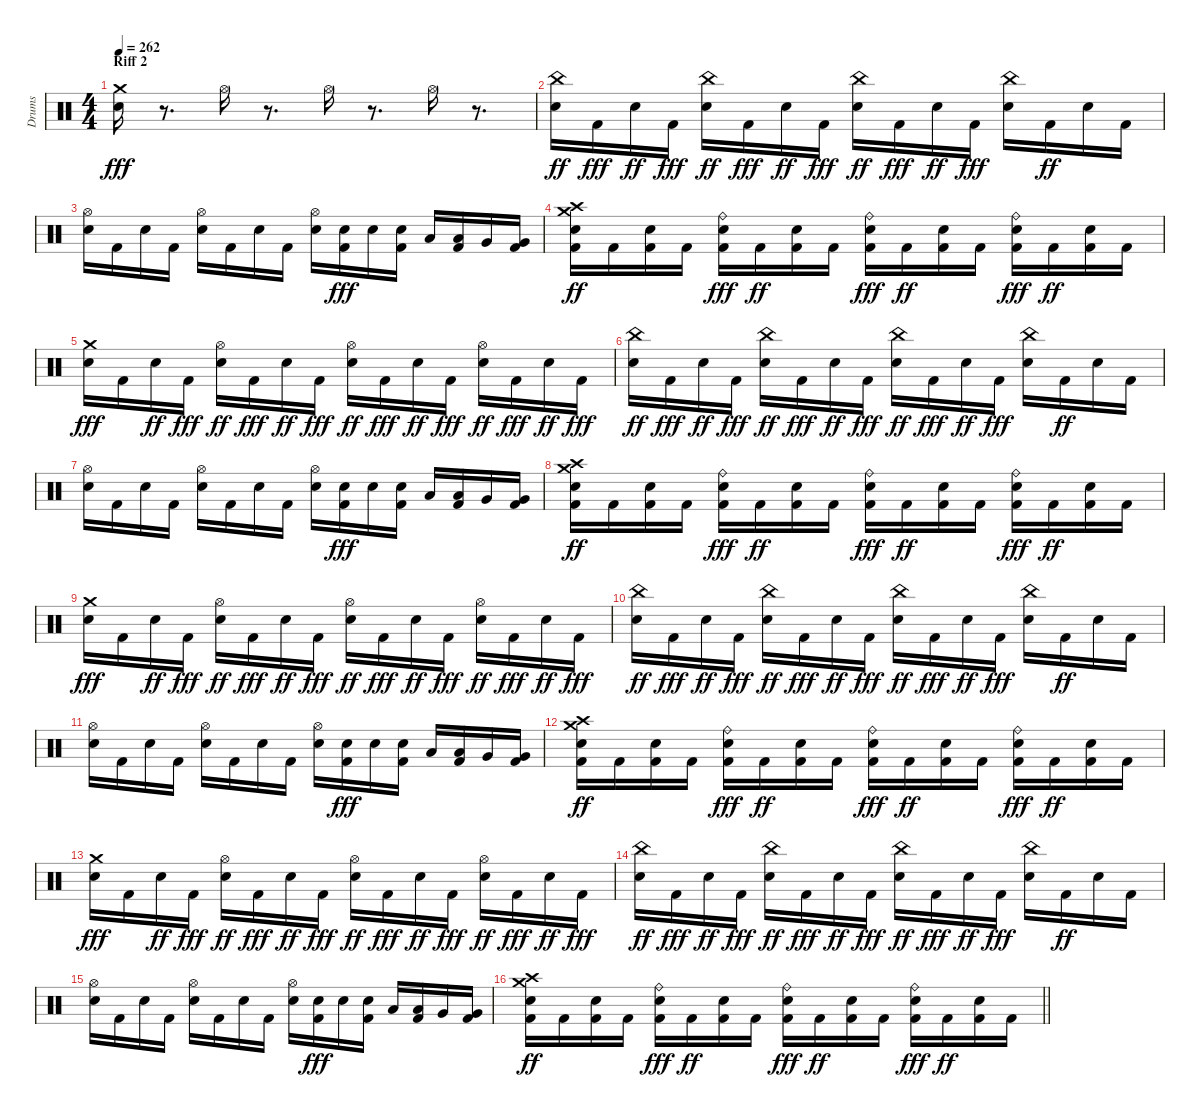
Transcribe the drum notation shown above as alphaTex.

\track ("Drums" "Drums") {instrument percussion}
\staff {score}
\articulation defaults
\ts (4 4)
\section ("" "Riff 2")
\tempo 262
\clef neutral
\ks c
("Crash medium (hit)" "Snare (hit) 2").16{dy fff} r.8{d} "Hi-Hat (open)".16 r.8{d} "Hi-Hat (open)".16 r.8{d} "Hi-Hat (open)".16 r.8{d} |
("China (hit)" "Snare (hit) 2").16{dy ff} "Kick (hit) 2".16{dy fff} "Snare (hit) 2".16{dy ff} "Kick (hit) 2".16{dy fff} ("China (hit)" "Snare (hit) 2").16{dy ff} "Kick (hit) 2".16{dy fff} "Snare (hit) 2".16{dy ff} "Kick (hit) 2".16{dy fff} ("China (hit)" "Snare (hit) 2").16{dy ff} "Kick (hit) 2".16{dy fff} "Snare (hit) 2".16{dy ff} "Kick (hit) 2".16{dy fff} ("China (hit)" "Snare (hit) 2").16 "Kick (hit) 2".16{dy ff} "Snare (hit) 2".16 "Kick (hit) 2".16 |
("Hi-Hat (open)" "Snare (hit) 2").16 "Kick (hit) 2".16 "Snare (hit) 2".16 "Kick (hit) 2".16 ("Hi-Hat (open)" "Snare (hit) 2").16 "Kick (hit) 2".16 "Snare (hit) 2".16 "Kick (hit) 2".16 ("Hi-Hat (open)" "Snare (hit) 2").16 ("Kick (hit) 2" "Snare (hit) 2").16{dy fff} "Snare (hit) 2".16 ("Kick (hit) 2" "Snare (hit) 2").16 "Low Tom (hit)".16 ("Kick (hit) 2" "Low Tom (hit)").16 "Very Low Tom (hit)".16 ("Kick (hit) 2" "Very Low Tom (hit)").16 |
("Crash high (hit)" "Crash medium (hit)" "Kick (hit) 2" "Snare (hit) 2").16{dy ff} "Kick (hit) 2".16 ("Kick (hit) 2" "Snare (hit) 2").16 "Kick (hit) 2".16 ("Kick (hit) 2" "Snare (hit) 2" "Ride (bell)").16{dy fff} "Kick (hit) 2".16{dy ff} ("Kick (hit) 2" "Snare (hit) 2").16 "Kick (hit) 2".16 ("Kick (hit) 2" "Snare (hit) 2" "Ride (bell)").16{dy fff} "Kick (hit) 2".16{dy ff} ("Kick (hit) 2" "Snare (hit) 2").16 "Kick (hit) 2".16 ("Kick (hit) 2" "Snare (hit) 2" "Ride (bell)").16{dy fff} "Kick (hit) 2".16{dy ff} ("Kick (hit) 2" "Snare (hit) 2").16 "Kick (hit) 2".16 |
("Crash medium (hit)" "Snare (hit) 2").16{dy fff} "Kick (hit) 2".16 "Snare (hit) 2".16{dy ff} "Kick (hit) 2".16{dy fff} ("Hi-Hat (open)" "Snare (hit) 2").16{dy ff} "Kick (hit) 2".16{dy fff} "Snare (hit) 2".16{dy ff} "Kick (hit) 2".16{dy fff} ("Hi-Hat (open)" "Snare (hit) 2").16{dy ff} "Kick (hit) 2".16{dy fff} "Snare (hit) 2".16{dy ff} "Kick (hit) 2".16{dy fff} ("Hi-Hat (open)" "Snare (hit) 2").16{dy ff} "Kick (hit) 2".16{dy fff} "Snare (hit) 2".16{dy ff} "Kick (hit) 2".16{dy fff} |
("China (hit)" "Snare (hit) 2").16{dy ff} "Kick (hit) 2".16{dy fff} "Snare (hit) 2".16{dy ff} "Kick (hit) 2".16{dy fff} ("China (hit)" "Snare (hit) 2").16{dy ff} "Kick (hit) 2".16{dy fff} "Snare (hit) 2".16{dy ff} "Kick (hit) 2".16{dy fff} ("China (hit)" "Snare (hit) 2").16{dy ff} "Kick (hit) 2".16{dy fff} "Snare (hit) 2".16{dy ff} "Kick (hit) 2".16{dy fff} ("China (hit)" "Snare (hit) 2").16 "Kick (hit) 2".16{dy ff} "Snare (hit) 2".16 "Kick (hit) 2".16 |
("Hi-Hat (open)" "Snare (hit) 2").16 "Kick (hit) 2".16 "Snare (hit) 2".16 "Kick (hit) 2".16 ("Hi-Hat (open)" "Snare (hit) 2").16 "Kick (hit) 2".16 "Snare (hit) 2".16 "Kick (hit) 2".16 ("Hi-Hat (open)" "Snare (hit) 2").16 ("Kick (hit) 2" "Snare (hit) 2").16{dy fff} "Snare (hit) 2".16 ("Kick (hit) 2" "Snare (hit) 2").16 "Low Tom (hit)".16 ("Kick (hit) 2" "Low Tom (hit)").16 "Very Low Tom (hit)".16 ("Kick (hit) 2" "Very Low Tom (hit)").16 |
("Crash high (hit)" "Crash medium (hit)" "Kick (hit) 2" "Snare (hit) 2").16{dy ff} "Kick (hit) 2".16 ("Kick (hit) 2" "Snare (hit) 2").16 "Kick (hit) 2".16 ("Kick (hit) 2" "Snare (hit) 2" "Ride (bell)").16{dy fff} "Kick (hit) 2".16{dy ff} ("Kick (hit) 2" "Snare (hit) 2").16 "Kick (hit) 2".16 ("Kick (hit) 2" "Snare (hit) 2" "Ride (bell)").16{dy fff} "Kick (hit) 2".16{dy ff} ("Kick (hit) 2" "Snare (hit) 2").16 "Kick (hit) 2".16 ("Kick (hit) 2" "Snare (hit) 2" "Ride (bell)").16{dy fff} "Kick (hit) 2".16{dy ff} ("Kick (hit) 2" "Snare (hit) 2").16 "Kick (hit) 2".16 |
("Crash medium (hit)" "Snare (hit) 2").16{dy fff} "Kick (hit) 2".16 "Snare (hit) 2".16{dy ff} "Kick (hit) 2".16{dy fff} ("Hi-Hat (open)" "Snare (hit) 2").16{dy ff} "Kick (hit) 2".16{dy fff} "Snare (hit) 2".16{dy ff} "Kick (hit) 2".16{dy fff} ("Hi-Hat (open)" "Snare (hit) 2").16{dy ff} "Kick (hit) 2".16{dy fff} "Snare (hit) 2".16{dy ff} "Kick (hit) 2".16{dy fff} ("Hi-Hat (open)" "Snare (hit) 2").16{dy ff} "Kick (hit) 2".16{dy fff} "Snare (hit) 2".16{dy ff} "Kick (hit) 2".16{dy fff} |
("China (hit)" "Snare (hit) 2").16{dy ff} "Kick (hit) 2".16{dy fff} "Snare (hit) 2".16{dy ff} "Kick (hit) 2".16{dy fff} ("China (hit)" "Snare (hit) 2").16{dy ff} "Kick (hit) 2".16{dy fff} "Snare (hit) 2".16{dy ff} "Kick (hit) 2".16{dy fff} ("China (hit)" "Snare (hit) 2").16{dy ff} "Kick (hit) 2".16{dy fff} "Snare (hit) 2".16{dy ff} "Kick (hit) 2".16{dy fff} ("China (hit)" "Snare (hit) 2").16 "Kick (hit) 2".16{dy ff} "Snare (hit) 2".16 "Kick (hit) 2".16 |
("Hi-Hat (open)" "Snare (hit) 2").16 "Kick (hit) 2".16 "Snare (hit) 2".16 "Kick (hit) 2".16 ("Hi-Hat (open)" "Snare (hit) 2").16 "Kick (hit) 2".16 "Snare (hit) 2".16 "Kick (hit) 2".16 ("Hi-Hat (open)" "Snare (hit) 2").16 ("Kick (hit) 2" "Snare (hit) 2").16{dy fff} "Snare (hit) 2".16 ("Kick (hit) 2" "Snare (hit) 2").16 "Low Tom (hit)".16 ("Kick (hit) 2" "Low Tom (hit)").16 "Very Low Tom (hit)".16 ("Kick (hit) 2" "Very Low Tom (hit)").16 |
("Crash high (hit)" "Crash medium (hit)" "Kick (hit) 2" "Snare (hit) 2").16{dy ff} "Kick (hit) 2".16 ("Kick (hit) 2" "Snare (hit) 2").16 "Kick (hit) 2".16 ("Kick (hit) 2" "Snare (hit) 2" "Ride (bell)").16{dy fff} "Kick (hit) 2".16{dy ff} ("Kick (hit) 2" "Snare (hit) 2").16 "Kick (hit) 2".16 ("Kick (hit) 2" "Snare (hit) 2" "Ride (bell)").16{dy fff} "Kick (hit) 2".16{dy ff} ("Kick (hit) 2" "Snare (hit) 2").16 "Kick (hit) 2".16 ("Kick (hit) 2" "Snare (hit) 2" "Ride (bell)").16{dy fff} "Kick (hit) 2".16{dy ff} ("Kick (hit) 2" "Snare (hit) 2").16 "Kick (hit) 2".16 |
("Crash medium (hit)" "Snare (hit) 2").16{dy fff} "Kick (hit) 2".16 "Snare (hit) 2".16{dy ff} "Kick (hit) 2".16{dy fff} ("Hi-Hat (open)" "Snare (hit) 2").16{dy ff} "Kick (hit) 2".16{dy fff} "Snare (hit) 2".16{dy ff} "Kick (hit) 2".16{dy fff} ("Hi-Hat (open)" "Snare (hit) 2").16{dy ff} "Kick (hit) 2".16{dy fff} "Snare (hit) 2".16{dy ff} "Kick (hit) 2".16{dy fff} ("Hi-Hat (open)" "Snare (hit) 2").16{dy ff} "Kick (hit) 2".16{dy fff} "Snare (hit) 2".16{dy ff} "Kick (hit) 2".16{dy fff} |
("China (hit)" "Snare (hit) 2").16{dy ff} "Kick (hit) 2".16{dy fff} "Snare (hit) 2".16{dy ff} "Kick (hit) 2".16{dy fff} ("China (hit)" "Snare (hit) 2").16{dy ff} "Kick (hit) 2".16{dy fff} "Snare (hit) 2".16{dy ff} "Kick (hit) 2".16{dy fff} ("China (hit)" "Snare (hit) 2").16{dy ff} "Kick (hit) 2".16{dy fff} "Snare (hit) 2".16{dy ff} "Kick (hit) 2".16{dy fff} ("China (hit)" "Snare (hit) 2").16 "Kick (hit) 2".16{dy ff} "Snare (hit) 2".16 "Kick (hit) 2".16 |
("Hi-Hat (open)" "Snare (hit) 2").16 "Kick (hit) 2".16 "Snare (hit) 2".16 "Kick (hit) 2".16 ("Hi-Hat (open)" "Snare (hit) 2").16 "Kick (hit) 2".16 "Snare (hit) 2".16 "Kick (hit) 2".16 ("Hi-Hat (open)" "Snare (hit) 2").16 ("Kick (hit) 2" "Snare (hit) 2").16{dy fff} "Snare (hit) 2".16 ("Kick (hit) 2" "Snare (hit) 2").16 "Low Tom (hit)".16 ("Kick (hit) 2" "Low Tom (hit)").16 "Very Low Tom (hit)".16 ("Kick (hit) 2" "Very Low Tom (hit)").16 |
\barLineRight lightlight
("Crash high (hit)" "Crash medium (hit)" "Kick (hit) 2" "Snare (hit) 2").16{dy ff} "Kick (hit) 2".16 ("Kick (hit) 2" "Snare (hit) 2").16 "Kick (hit) 2".16 ("Kick (hit) 2" "Snare (hit) 2" "Ride (bell)").16{dy fff} "Kick (hit) 2".16{dy ff} ("Kick (hit) 2" "Snare (hit) 2").16 "Kick (hit) 2".16 ("Kick (hit) 2" "Snare (hit) 2" "Ride (bell)").16{dy fff} "Kick (hit) 2".16{dy ff} ("Kick (hit) 2" "Snare (hit) 2").16 "Kick (hit) 2".16 ("Kick (hit) 2" "Snare (hit) 2" "Ride (bell)").16{dy fff} "Kick (hit) 2".16{dy ff} ("Kick (hit) 2" "Snare (hit) 2").16 "Kick (hit) 2".16
